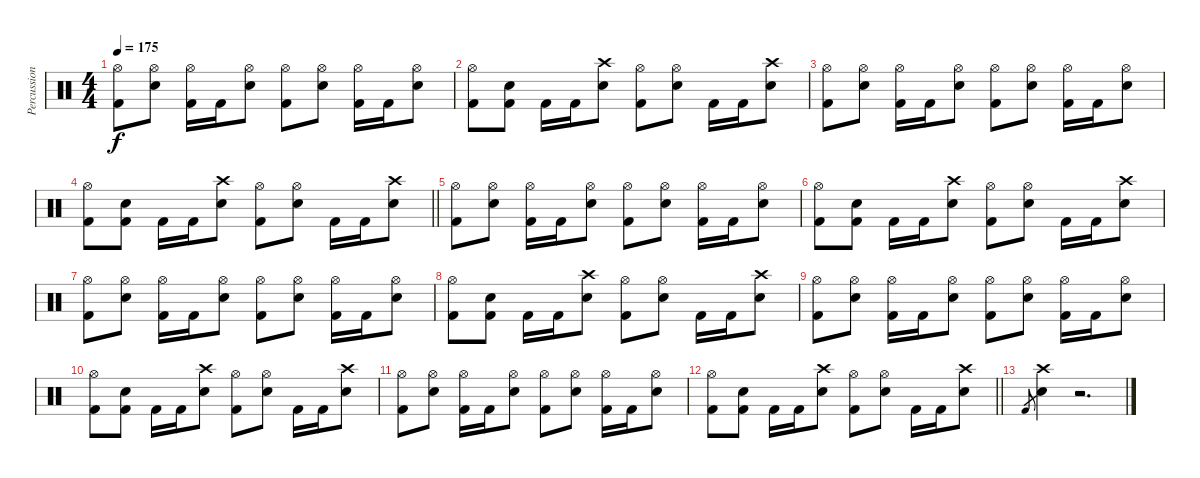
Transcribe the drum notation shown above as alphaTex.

\track ("Percussion" "Percussion") {instrument percussion}
\staff {score}
\articulation defaults
\ts (4 4)
\tempo 175
\clef neutral
\ks c
("Hi-Hat (open)" "Kick (hit) 2").8{dy f} ("Hi-Hat (open)" "Electric Snare (hit)").8 ("Hi-Hat (open)" "Kick (hit) 2").16 "Kick (hit) 2".16 ("Hi-Hat (open)" "Electric Snare (hit)").8 ("Hi-Hat (open)" "Kick (hit) 2").8 ("Hi-Hat (open)" "Electric Snare (hit)").8 ("Hi-Hat (open)" "Kick (hit) 2").16 "Kick (hit) 2".16 ("Hi-Hat (open)" "Electric Snare (hit)").8 |
("Hi-Hat (open)" "Kick (hit) 2").8 ("Kick (hit) 2" "Electric Snare (hit)").8 "Kick (hit) 2".16 "Kick (hit) 2".16 ("Crash high (hit)" "Electric Snare (hit)").8 ("Hi-Hat (open)" "Kick (hit) 2").8 ("Hi-Hat (open)" "Electric Snare (hit)").8 "Kick (hit) 2".16 "Kick (hit) 2".16 ("Crash high (hit)" "Electric Snare (hit)").8 |
("Hi-Hat (open)" "Kick (hit) 2").8 ("Hi-Hat (open)" "Electric Snare (hit)").8 ("Hi-Hat (open)" "Kick (hit) 2").16 "Kick (hit) 2".16 ("Hi-Hat (open)" "Electric Snare (hit)").8 ("Hi-Hat (open)" "Kick (hit) 2").8 ("Hi-Hat (open)" "Electric Snare (hit)").8 ("Hi-Hat (open)" "Kick (hit) 2").16 "Kick (hit) 2".16 ("Hi-Hat (open)" "Electric Snare (hit)").8 |
\barLineRight lightlight
("Hi-Hat (open)" "Kick (hit) 2").8 ("Kick (hit) 2" "Electric Snare (hit)").8 "Kick (hit) 2".16 "Kick (hit) 2".16 ("Crash high (hit)" "Electric Snare (hit)").8 ("Hi-Hat (open)" "Kick (hit) 2").8 ("Hi-Hat (open)" "Electric Snare (hit)").8 "Kick (hit) 2".16 "Kick (hit) 2".16 ("Crash high (hit)" "Electric Snare (hit)").8 |
("Hi-Hat (open)" "Kick (hit) 2").8 ("Hi-Hat (open)" "Electric Snare (hit)").8 ("Hi-Hat (open)" "Kick (hit) 2").16 "Kick (hit) 2".16 ("Hi-Hat (open)" "Electric Snare (hit)").8 ("Hi-Hat (open)" "Kick (hit) 2").8 ("Hi-Hat (open)" "Electric Snare (hit)").8 ("Hi-Hat (open)" "Kick (hit) 2").16 "Kick (hit) 2".16 ("Hi-Hat (open)" "Electric Snare (hit)").8 |
("Hi-Hat (open)" "Kick (hit) 2").8 ("Kick (hit) 2" "Electric Snare (hit)").8 "Kick (hit) 2".16 "Kick (hit) 2".16 ("Crash high (hit)" "Electric Snare (hit)").8 ("Hi-Hat (open)" "Kick (hit) 2").8 ("Hi-Hat (open)" "Electric Snare (hit)").8 "Kick (hit) 2".16 "Kick (hit) 2".16 ("Crash high (hit)" "Electric Snare (hit)").8 |
("Hi-Hat (open)" "Kick (hit) 2").8 ("Hi-Hat (open)" "Electric Snare (hit)").8 ("Hi-Hat (open)" "Kick (hit) 2").16 "Kick (hit) 2".16 ("Hi-Hat (open)" "Electric Snare (hit)").8 ("Hi-Hat (open)" "Kick (hit) 2").8 ("Hi-Hat (open)" "Electric Snare (hit)").8 ("Hi-Hat (open)" "Kick (hit) 2").16 "Kick (hit) 2".16 ("Hi-Hat (open)" "Electric Snare (hit)").8 |
("Hi-Hat (open)" "Kick (hit) 2").8 ("Kick (hit) 2" "Electric Snare (hit)").8 "Kick (hit) 2".16 "Kick (hit) 2".16 ("Crash high (hit)" "Electric Snare (hit)").8 ("Hi-Hat (open)" "Kick (hit) 2").8 ("Hi-Hat (open)" "Electric Snare (hit)").8 "Kick (hit) 2".16 "Kick (hit) 2".16 ("Crash high (hit)" "Electric Snare (hit)").8 |
("Hi-Hat (open)" "Kick (hit) 2").8 ("Hi-Hat (open)" "Electric Snare (hit)").8 ("Hi-Hat (open)" "Kick (hit) 2").16 "Kick (hit) 2".16 ("Hi-Hat (open)" "Electric Snare (hit)").8 ("Hi-Hat (open)" "Kick (hit) 2").8 ("Hi-Hat (open)" "Electric Snare (hit)").8 ("Hi-Hat (open)" "Kick (hit) 2").16 "Kick (hit) 2".16 ("Hi-Hat (open)" "Electric Snare (hit)").8 |
("Hi-Hat (open)" "Kick (hit) 2").8 ("Kick (hit) 2" "Electric Snare (hit)").8 "Kick (hit) 2".16 "Kick (hit) 2".16 ("Crash high (hit)" "Electric Snare (hit)").8 ("Hi-Hat (open)" "Kick (hit) 2").8 ("Hi-Hat (open)" "Electric Snare (hit)").8 "Kick (hit) 2".16 "Kick (hit) 2".16 ("Crash high (hit)" "Electric Snare (hit)").8 |
("Hi-Hat (open)" "Kick (hit) 2").8 ("Hi-Hat (open)" "Electric Snare (hit)").8 ("Hi-Hat (open)" "Kick (hit) 2").16 "Kick (hit) 2".16 ("Hi-Hat (open)" "Electric Snare (hit)").8 ("Hi-Hat (open)" "Kick (hit) 2").8 ("Hi-Hat (open)" "Electric Snare (hit)").8 ("Hi-Hat (open)" "Kick (hit) 2").16 "Kick (hit) 2".16 ("Hi-Hat (open)" "Electric Snare (hit)").8 |
\barLineRight lightlight
("Hi-Hat (open)" "Kick (hit) 2").8 ("Kick (hit) 2" "Electric Snare (hit)").8 "Kick (hit) 2".16 "Kick (hit) 2".16 ("Crash high (hit)" "Electric Snare (hit)").8 ("Hi-Hat (open)" "Kick (hit) 2").8 ("Hi-Hat (open)" "Electric Snare (hit)").8 "Kick (hit) 2".16 "Kick (hit) 2".16 ("Crash high (hit)" "Electric Snare (hit)").8 |
"Kick (hit) 2".8{gr} ("Crash high (hit)" "Electric Snare (hit)").4 r.2{d}
